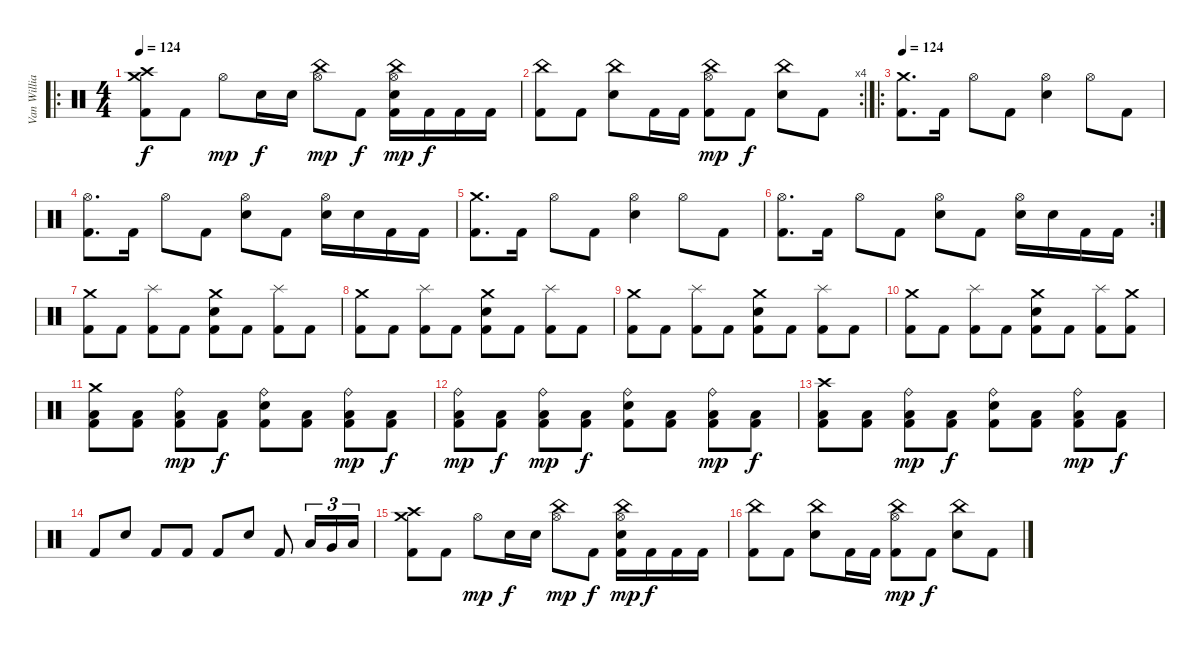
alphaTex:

\track ("Van Williams" "Van Willia") {instrument percussion}
\staff {score}
\articulation defaults
\ro
\ts (4 4)
\tempo 124
\tempo 125
\tempo 124
\clef neutral
\ks c
("Crash medium (hit)" "Crash high (hit)" "Kick (hit) 2").8{dy f} "Kick (hit) 2".8 "Hi-Hat (open)".8{dy mp} "Electric Snare (hit)".16{dy f} "Electric Snare (hit)".16 ("China (hit)" "Hi-Hat (open)").8{dy mp} "Kick (hit) 2".8{dy f} ("China (hit)" "Hi-Hat (open)" "Electric Snare (hit)" "Kick (hit) 2").16{dy mp} "Kick (hit) 2".16{dy f} "Kick (hit) 2".16 "Kick (hit) 2".16 |
\rc 4
("China (hit)" "Kick (hit) 2").8 "Kick (hit) 2".8 ("China (hit)" "Electric Snare (hit)").8 "Kick (hit) 2".16 "Kick (hit) 2".16 ("China (hit)" "Hi-Hat (open)" "Kick (hit) 2").8{dy mp} "Kick (hit) 2".8{dy f} ("China (hit)" "Electric Snare (hit)").8 "Kick (hit) 2".8 |
\ro
\tempo 124
("Crash medium (hit)" "Kick (hit) 2").8{d} "Kick (hit) 2".16 "Hi-Hat (open)".8 "Kick (hit) 2".8 ("Hi-Hat (open)" "Electric Snare (hit)").4 "Hi-Hat (open)".8 "Kick (hit) 2".8 |
("Hi-Hat (open)" "Kick (hit) 2").8{d} "Kick (hit) 2".16 "Hi-Hat (open)".8 "Kick (hit) 2".8 ("Hi-Hat (open)" "Electric Snare (hit)").8 "Kick (hit) 2".8 ("Hi-Hat (open)" "Electric Snare (hit)").16 "Electric Snare (hit)".16 "Kick (hit) 2".16 "Kick (hit) 2".16 |
("Crash medium (hit)" "Kick (hit) 2").8{d} "Kick (hit) 2".16 "Hi-Hat (open)".8 "Kick (hit) 2".8 ("Hi-Hat (open)" "Electric Snare (hit)").4 "Hi-Hat (open)".8 "Kick (hit) 2".8 |
\rc 2
("Hi-Hat (open)" "Kick (hit) 2").8{d} "Kick (hit) 2".16 "Hi-Hat (open)".8 "Kick (hit) 2".8 ("Hi-Hat (open)" "Electric Snare (hit)").8 "Kick (hit) 2".8 ("Hi-Hat (open)" "Electric Snare (hit)").16 "Electric Snare (hit)".16 "Kick (hit) 2".16 "Kick (hit) 2".16 |
("Crash medium (hit)" "Kick (hit) 2").8 "Kick (hit) 2".8 ("Splash (hit)" "Kick (hit) 2").8 "Kick (hit) 2".8 ("Crash medium (hit)" "Electric Snare (hit)" "Kick (hit) 2").8 "Kick (hit) 2".8 ("Splash (hit)" "Kick (hit) 2").8 "Kick (hit) 2".8 |
("Crash medium (hit)" "Kick (hit) 2").8 "Kick (hit) 2".8 ("Splash (hit)" "Kick (hit) 2").8 "Kick (hit) 2".8 ("Crash medium (hit)" "Electric Snare (hit)" "Kick (hit) 2").8 "Kick (hit) 2".8 ("Splash (hit)" "Kick (hit) 2").8 "Kick (hit) 2".8 |
("Crash medium (hit)" "Kick (hit) 2").8 "Kick (hit) 2".8 ("Splash (hit)" "Kick (hit) 2").8 "Kick (hit) 2".8 ("Crash medium (hit)" "Electric Snare (hit)" "Kick (hit) 2").8 "Kick (hit) 2".8 ("Splash (hit)" "Kick (hit) 2").8 "Kick (hit) 2".8 |
("Crash medium (hit)" "Kick (hit) 2").8 "Kick (hit) 2".8 ("Splash (hit)" "Kick (hit) 2").8 "Kick (hit) 2".8 ("Crash medium (hit)" "Electric Snare (hit)" "Kick (hit) 2").8 "Kick (hit) 2".8 ("Splash (hit)" "Kick (hit) 2").8 ("Crash medium (hit)" "Kick (hit) 2").8 |
("Crash medium (hit)" "Low Floor Tom (hit)" "Kick (hit) 2").8 ("Low Floor Tom (hit)" "Kick (hit) 2").8 ("Ride (bell)" "Low Floor Tom (hit)" "Kick (hit) 2").8{dy mp} ("Low Floor Tom (hit)" "Kick (hit) 2").8{dy f} ("Ride (bell)" "Electric Snare (hit)" "Kick (hit) 2").8 ("Low Floor Tom (hit)" "Kick (hit) 2").8 ("Ride (bell)" "Low Floor Tom (hit)" "Kick (hit) 2").8{dy mp} ("Low Floor Tom (hit)" "Kick (hit) 2").8{dy f} |
("Ride (bell)" "Low Floor Tom (hit)" "Kick (hit) 2").8{dy mp} ("Low Floor Tom (hit)" "Kick (hit) 2").8{dy f} ("Ride (bell)" "Low Floor Tom (hit)" "Kick (hit) 2").8{dy mp} ("Low Floor Tom (hit)" "Kick (hit) 2").8{dy f} ("Ride (bell)" "Electric Snare (hit)" "Kick (hit) 2").8 ("Low Floor Tom (hit)" "Kick (hit) 2").8 ("Ride (bell)" "Low Floor Tom (hit)" "Kick (hit) 2").8{dy mp} ("Low Floor Tom (hit)" "Kick (hit) 2").8{dy f} |
("Crash high (hit)" "Low Floor Tom (hit)" "Kick (hit) 2").8 ("Low Floor Tom (hit)" "Kick (hit) 2").8 ("Ride (bell)" "Low Floor Tom (hit)" "Kick (hit) 2").8{dy mp} ("Low Floor Tom (hit)" "Kick (hit) 2").8{dy f} ("Ride (bell)" "Electric Snare (hit)" "Kick (hit) 2").8 ("Low Floor Tom (hit)" "Kick (hit) 2").8 ("Ride (bell)" "Low Floor Tom (hit)" "Kick (hit) 2").8{dy mp} ("Low Floor Tom (hit)" "Kick (hit) 2").8{dy f} |
"Kick (hit) 2".8 "Electric Snare (hit)".8 "Kick (hit) 2".8 "Kick (hit) 2".8 "Kick (hit) 2".8 "Electric Snare (hit)".8 "Kick (hit) 2".8 "Low Tom (hit)".16{tu (3 2)} "Very Low Tom (hit)".16{tu (3 2)} "Low Floor Tom (hit)".16{tu (3 2)} |
("Crash medium (hit)" "Crash high (hit)" "Kick (hit) 2").8 "Kick (hit) 2".8 "Hi-Hat (open)".8{dy mp} "Electric Snare (hit)".16{dy f} "Electric Snare (hit)".16 ("China (hit)" "Hi-Hat (open)").8{dy mp} "Kick (hit) 2".8{dy f} ("China (hit)" "Hi-Hat (open)" "Electric Snare (hit)" "Kick (hit) 2").16{dy mp} "Kick (hit) 2".16{dy f} "Kick (hit) 2".16 "Kick (hit) 2".16 |
("China (hit)" "Kick (hit) 2").8 "Kick (hit) 2".8 ("China (hit)" "Electric Snare (hit)").8 "Kick (hit) 2".16 "Kick (hit) 2".16 ("China (hit)" "Hi-Hat (open)" "Kick (hit) 2").8{dy mp} "Kick (hit) 2".8{dy f} ("China (hit)" "Electric Snare (hit)").8 "Kick (hit) 2".8
